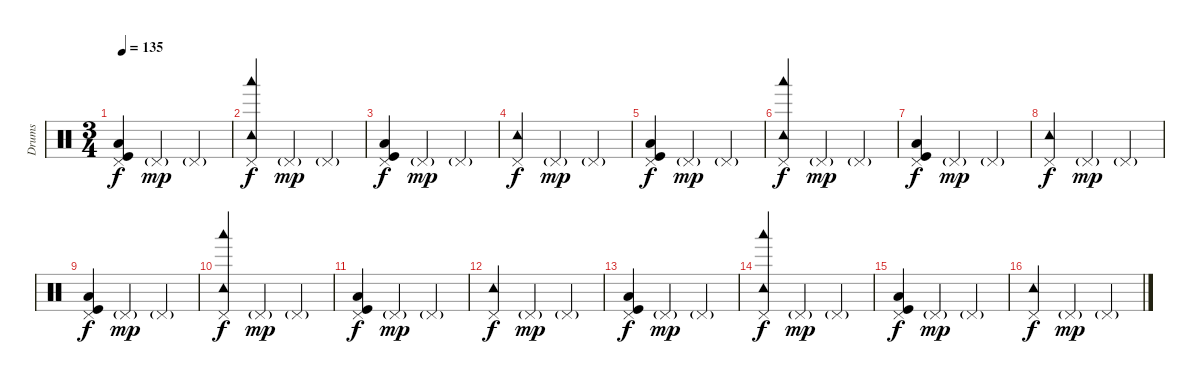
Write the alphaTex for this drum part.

\track ("Drums" "Drums") {instrument percussion}
\staff {score}
\articulation defaults
\ts (3 4)
\tempo 135
\clef neutral
\ks c
("Pedal Hi-Hat (hit)" "Low Floor Tom (hit)" "Kick (hit)").4{dy f} "Pedal Hi-Hat (hit)"{g}.4{dy mp} "Pedal Hi-Hat (hit)"{g}.4 |
("Pedal Hi-Hat (hit)" "Woodblock low (hit)" "Tambourine (hit)").4{dy f} "Pedal Hi-Hat (hit)"{g}.4{dy mp} "Pedal Hi-Hat (hit)"{g}.4 |
("Pedal Hi-Hat (hit)" "Low Floor Tom (hit)" "Kick (hit)").4{dy f} "Pedal Hi-Hat (hit)"{g}.4{dy mp} "Pedal Hi-Hat (hit)"{g}.4 |
("Pedal Hi-Hat (hit)" "Tambourine (hit)").4{dy f} "Pedal Hi-Hat (hit)"{g}.4{dy mp} "Pedal Hi-Hat (hit)"{g}.4 |
("Pedal Hi-Hat (hit)" "Low Floor Tom (hit)" "Kick (hit)").4{dy f} "Pedal Hi-Hat (hit)"{g}.4{dy mp} "Pedal Hi-Hat (hit)"{g}.4 |
("Pedal Hi-Hat (hit)" "Woodblock low (hit)" "Tambourine (hit)").4{dy f} "Pedal Hi-Hat (hit)"{g}.4{dy mp} "Pedal Hi-Hat (hit)"{g}.4 |
("Pedal Hi-Hat (hit)" "Low Floor Tom (hit)" "Kick (hit)").4{dy f} "Pedal Hi-Hat (hit)"{g}.4{dy mp} "Pedal Hi-Hat (hit)"{g}.4 |
("Pedal Hi-Hat (hit)" "Tambourine (hit)").4{dy f} "Pedal Hi-Hat (hit)"{g}.4{dy mp} "Pedal Hi-Hat (hit)"{g}.4 |
("Pedal Hi-Hat (hit)" "Low Floor Tom (hit)" "Kick (hit)").4{dy f} "Pedal Hi-Hat (hit)"{g}.4{dy mp} "Pedal Hi-Hat (hit)"{g}.4 |
("Pedal Hi-Hat (hit)" "Woodblock low (hit)" "Tambourine (hit)").4{dy f} "Pedal Hi-Hat (hit)"{g}.4{dy mp} "Pedal Hi-Hat (hit)"{g}.4 |
("Pedal Hi-Hat (hit)" "Low Floor Tom (hit)" "Kick (hit)").4{dy f} "Pedal Hi-Hat (hit)"{g}.4{dy mp} "Pedal Hi-Hat (hit)"{g}.4 |
("Pedal Hi-Hat (hit)" "Tambourine (hit)").4{dy f} "Pedal Hi-Hat (hit)"{g}.4{dy mp} "Pedal Hi-Hat (hit)"{g}.4 |
("Pedal Hi-Hat (hit)" "Low Floor Tom (hit)" "Kick (hit)").4{dy f} "Pedal Hi-Hat (hit)"{g}.4{dy mp} "Pedal Hi-Hat (hit)"{g}.4 |
("Pedal Hi-Hat (hit)" "Woodblock low (hit)" "Tambourine (hit)").4{dy f} "Pedal Hi-Hat (hit)"{g}.4{dy mp} "Pedal Hi-Hat (hit)"{g}.4 |
("Pedal Hi-Hat (hit)" "Low Floor Tom (hit)" "Kick (hit)").4{dy f} "Pedal Hi-Hat (hit)"{g}.4{dy mp} "Pedal Hi-Hat (hit)"{g}.4 |
("Pedal Hi-Hat (hit)" "Tambourine (hit)").4{dy f} "Pedal Hi-Hat (hit)"{g}.4{dy mp} "Pedal Hi-Hat (hit)"{g}.4
